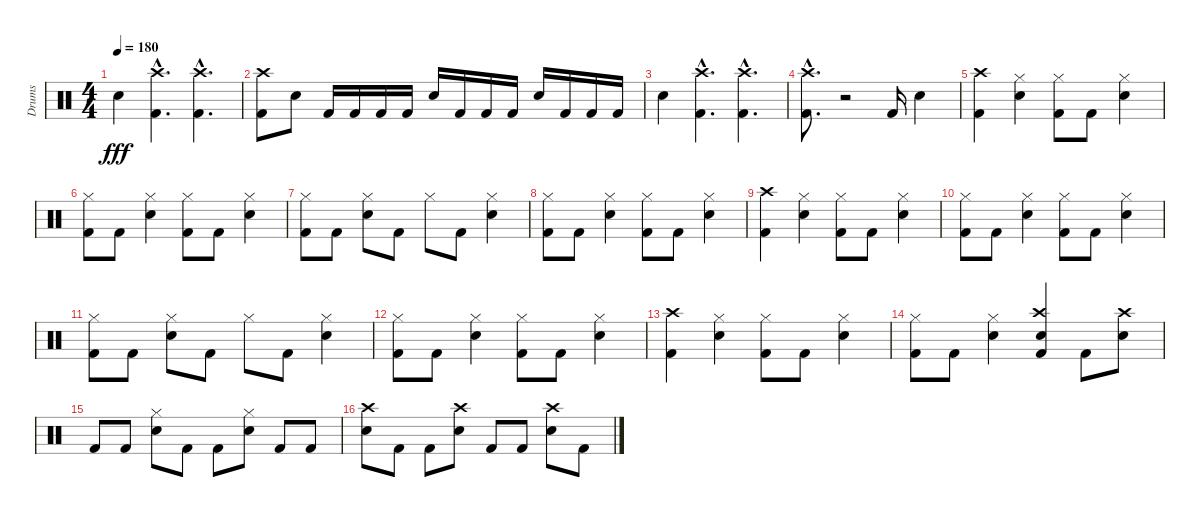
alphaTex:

\track ("Drums" "Drums") {instrument percussion}
\staff {score}
\articulation defaults
\ts (4 4)
\tempo 180
\clef neutral
\ks c "Snare (hit) 2".4{dy fff}
("Crash high (hit)"{hac} "Kick (hit) 2"{hac}).4{d} ("Crash high (hit)"{hac} "Kick (hit) 2"{hac}).4{d} |
("Kick (hit) 2" "Crash high (hit)").8 "Snare (hit) 2".8 "Kick (hit) 2".16 "Kick (hit) 2".16 "Kick (hit) 2".16 "Kick (hit) 2".16 "Snare (hit) 2".16 "Kick (hit) 2".16 "Kick (hit) 2".16 "Kick (hit) 2".16 "Snare (hit) 2".16 "Kick (hit) 2".16 "Kick (hit) 2".16 "Kick (hit) 2".16 |
"Snare (hit) 2".4 ("Kick (hit) 2"{hac} "Crash high (hit)"{hac}).4{d} ("Crash high (hit)"{hac} "Kick (hit) 2"{hac}).4{d} |
("Kick (hit) 2"{hac} "Crash high (hit)"{hac}).8{d} r.2 "Kick (hit) 2".16 "Snare (hit) 2".4 |
("Crash high (hit)" "Kick (hit) 2").4 ("Snare (hit) 2" "Hi-Hat (closed)").4 ("Kick (hit) 2" "Hi-Hat (closed)").8 "Kick (hit) 2".8 ("Snare (hit) 2" "Hi-Hat (closed)").4 |
("Kick (hit) 2" "Hi-Hat (closed)").8 "Kick (hit) 2".8 ("Snare (hit) 2" "Hi-Hat (closed)").4 ("Kick (hit) 2" "Hi-Hat (closed)").8 "Kick (hit) 2".8 ("Snare (hit) 2" "Hi-Hat (closed)").4 |
("Kick (hit) 2" "Hi-Hat (closed)").8 "Kick (hit) 2".8 ("Snare (hit) 2" "Hi-Hat (closed)").8 "Kick (hit) 2".8 "Hi-Hat (closed)".8 "Kick (hit) 2".8 ("Snare (hit) 2" "Hi-Hat (closed)").4 |
("Kick (hit) 2" "Hi-Hat (closed)").8 "Kick (hit) 2".8 ("Snare (hit) 2" "Hi-Hat (closed)").4 ("Kick (hit) 2" "Hi-Hat (closed)").8 "Kick (hit) 2".8 ("Snare (hit) 2" "Hi-Hat (closed)").4 |
("Crash high (hit)" "Kick (hit) 2").4 ("Snare (hit) 2" "Hi-Hat (closed)").4 ("Kick (hit) 2" "Hi-Hat (closed)").8 "Kick (hit) 2".8 ("Snare (hit) 2" "Hi-Hat (closed)").4 |
("Kick (hit) 2" "Hi-Hat (closed)").8 "Kick (hit) 2".8 ("Snare (hit) 2" "Hi-Hat (closed)").4 ("Kick (hit) 2" "Hi-Hat (closed)").8 "Kick (hit) 2".8 ("Snare (hit) 2" "Hi-Hat (closed)").4 |
("Kick (hit) 2" "Hi-Hat (closed)").8 "Kick (hit) 2".8 ("Snare (hit) 2" "Hi-Hat (closed)").8 "Kick (hit) 2".8 "Hi-Hat (closed)".8 "Kick (hit) 2".8 ("Snare (hit) 2" "Hi-Hat (closed)").4 |
("Kick (hit) 2" "Hi-Hat (closed)").8 "Kick (hit) 2".8 ("Snare (hit) 2" "Hi-Hat (closed)").4 ("Kick (hit) 2" "Hi-Hat (closed)").8 "Kick (hit) 2".8 ("Snare (hit) 2" "Hi-Hat (closed)").4 |
("Crash high (hit)" "Kick (hit) 2").4 ("Snare (hit) 2" "Hi-Hat (closed)").4 ("Kick (hit) 2" "Hi-Hat (closed)").8 "Kick (hit) 2".8 ("Snare (hit) 2" "Hi-Hat (closed)").4 |
("Kick (hit) 2" "Hi-Hat (closed)").8 "Kick (hit) 2".8 ("Snare (hit) 2" "Hi-Hat (closed)").4 ("Kick (hit) 2" "Snare (hit) 2" "Crash high (hit)").4 "Kick (hit) 2".8 ("Crash high (hit)" "Snare (hit) 2").8 |
"Kick (hit) 2".8 "Kick (hit) 2".8 ("Snare (hit) 2" "Hi-Hat (closed)").8 "Kick (hit) 2".8 "Kick (hit) 2".8 ("Hi-Hat (closed)" "Snare (hit) 2").8 "Kick (hit) 2".8 "Kick (hit) 2".8 |
("Snare (hit) 2" "Crash high (hit)").8 "Kick (hit) 2".8 "Kick (hit) 2".8 ("Crash high (hit)" "Snare (hit) 2").8 "Kick (hit) 2".8 "Kick (hit) 2".8 ("Crash high (hit)" "Snare (hit) 2").8 "Kick (hit) 2".8
